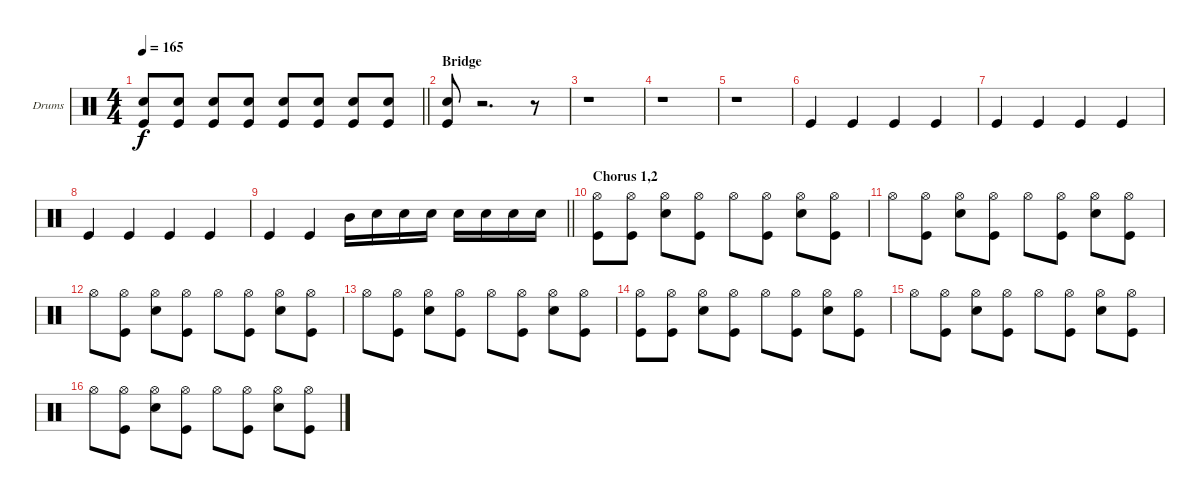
\bracketExtendMode groupsimilarinstruments
\firstSystemTrackNameOrientation horizontal
\otherSystemsTrackNameOrientation horizontal
\track ("Fabrizio" "Drums") {instrument percussion}
\staff {score}
\articulation defaults
\ts (4 4)
\tempo 165
\clef neutral
\barLineRight lightlight
\ks c
("Snare (hit) 2" "Kick (hit)").8{dy f} ("Snare (hit) 2" "Kick (hit)").8 ("Snare (hit) 2" "Kick (hit)").8 ("Snare (hit) 2" "Kick (hit)").8 ("Snare (hit) 2" "Kick (hit)").8 ("Snare (hit) 2" "Kick (hit)").8 ("Snare (hit) 2" "Kick (hit)").8 ("Snare (hit) 2" "Kick (hit)").8 |
\section ("" "Bridge")
("Snare (hit) 2" "Kick (hit)").8 r.2{d} r.8 |
r.1 |
r.1 |
r.1 |
"Kick (hit)".4 "Kick (hit)".4 "Kick (hit)".4 "Kick (hit)".4 |
"Kick (hit)".4 "Kick (hit)".4 "Kick (hit)".4 "Kick (hit)".4 |
"Kick (hit)".4 "Kick (hit)".4 "Kick (hit)".4 "Kick (hit)".4 |
\barLineRight lightlight "Kick (hit)".4 "Kick (hit)".4 "Mid Tom (hit)".16 "Snare (hit) 2".16 "Snare (hit) 2".16 "Snare (hit) 2".16 "Snare (hit) 2".16 "Snare (hit) 2".16 "Snare (hit) 2".16 "Snare (hit) 2".16
|
\section ("" "Chorus 1,2")
("Kick (hit)" "Hi-Hat (open)").8 ("Kick (hit)" "Hi-Hat (open)").8 ("Snare (hit) 2" "Hi-Hat (open)").8 ("Kick (hit)" "Hi-Hat (open)").8 "Hi-Hat (open)".8 ("Kick (hit)" "Hi-Hat (open)").8 ("Snare (hit) 2" "Hi-Hat (open)").8 ("Kick (hit)" "Hi-Hat (open)").8 |
"Hi-Hat (open)".8 ("Hi-Hat (open)" "Kick (hit)").8 ("Hi-Hat (open)" "Snare (hit) 2").8 ("Hi-Hat (open)" "Kick (hit)").8 "Hi-Hat (open)".8 ("Hi-Hat (open)" "Kick (hit)").8 ("Hi-Hat (open)" "Snare (hit) 2").8 ("Hi-Hat (open)" "Kick (hit)").8 |
"Hi-Hat (open)".8 ("Hi-Hat (open)" "Kick (hit)").8 ("Hi-Hat (open)" "Snare (hit) 2").8 ("Hi-Hat (open)" "Kick (hit)").8 "Hi-Hat (open)".8 ("Hi-Hat (open)" "Kick (hit)").8 ("Hi-Hat (open)" "Snare (hit) 2").8 ("Hi-Hat (open)" "Kick (hit)").8 |
"Hi-Hat (open)".8 ("Hi-Hat (open)" "Kick (hit)").8 ("Hi-Hat (open)" "Snare (hit) 2").8 ("Hi-Hat (open)" "Kick (hit)").8 "Hi-Hat (open)".8 ("Hi-Hat (open)" "Kick (hit)").8 ("Hi-Hat (open)" "Snare (hit) 2").8 ("Hi-Hat (open)" "Kick (hit)").8 |
("Hi-Hat (open)" "Kick (hit)").8 ("Hi-Hat (open)" "Kick (hit)").8 ("Hi-Hat (open)" "Snare (hit) 2").8 ("Hi-Hat (open)" "Kick (hit)").8 "Hi-Hat (open)".8 ("Hi-Hat (open)" "Kick (hit)").8 ("Hi-Hat (open)" "Snare (hit) 2").8 ("Hi-Hat (open)" "Kick (hit)").8 |
"Hi-Hat (open)".8 ("Hi-Hat (open)" "Kick (hit)").8 ("Hi-Hat (open)" "Snare (hit) 2").8 ("Hi-Hat (open)" "Kick (hit)").8 "Hi-Hat (open)".8 ("Hi-Hat (open)" "Kick (hit)").8 ("Hi-Hat (open)" "Snare (hit) 2").8 ("Hi-Hat (open)" "Kick (hit)").8 |
"Hi-Hat (open)".8 ("Hi-Hat (open)" "Kick (hit)").8 ("Hi-Hat (open)" "Snare (hit) 2").8 ("Hi-Hat (open)" "Kick (hit)").8 "Hi-Hat (open)".8 ("Hi-Hat (open)" "Kick (hit)").8 ("Hi-Hat (open)" "Snare (hit) 2").8 ("Hi-Hat (open)" "Kick (hit)").8
